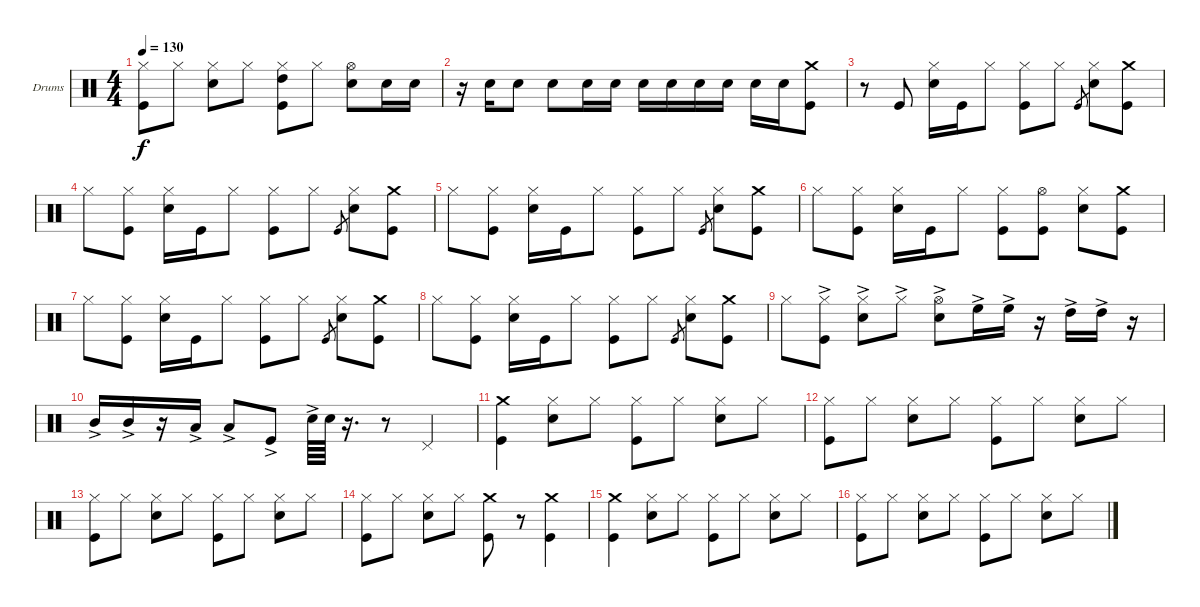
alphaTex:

\defaultSystemsLayout 4
\bracketExtendMode groupsimilarinstruments
\firstSystemTrackNameOrientation horizontal
\otherSystemsTrackNameOrientation horizontal
\track ("Stefan Kaufmann" "Drums") {instrument percussion}
\staff {score}
\articulation defaults
\ts (4 4)
\tempo 130
\clef neutral
\ks c
("Hi-Hat (closed)" "Kick (hit)").8{dy f} "Hi-Hat (closed)".8 ("Hi-Hat (closed)" "Snare (hit) 2").8 "Hi-Hat (closed)".8 ("Hi-Hat (closed)" "High Tom (hit)" "Kick (hit)").8 "Hi-Hat (closed)".8 ("Hi-Hat (open)" "Snare (hit) 2").8 "Snare (hit) 2".16 "Snare (hit) 2".16 |
r.16 "Snare (hit) 2".16 "Snare (hit) 2".8 "Snare (hit) 2".8 "Snare (hit) 2".16 "Snare (hit) 2".16 "Snare (hit) 2".16 "Snare (hit) 2".16 "Snare (hit) 2".16 "Snare (hit) 2".16 "Snare (hit) 2".16 "Snare (hit) 2".16 ("Crash medium (hit)" "Kick (hit)").8 |
r.8 "Kick (hit)".8 ("Hi-Hat (closed)" "Snare (hit) 2").16 "Kick (hit)".16 "Hi-Hat (closed)".8 ("Hi-Hat (closed)" "Kick (hit)").8 "Hi-Hat (closed)".8 "Kick (hit)".8{gr} ("Hi-Hat (closed)" "Snare (hit) 2").8 ("Crash medium (hit)" "Kick (hit)").8 |
"Hi-Hat (closed)".8 ("Hi-Hat (closed)" "Kick (hit)").8 ("Hi-Hat (closed)" "Snare (hit) 2").16 "Kick (hit)".16 "Hi-Hat (closed)".8 ("Hi-Hat (closed)" "Kick (hit)").8 "Hi-Hat (closed)".8 "Kick (hit)".8{gr} ("Hi-Hat (closed)" "Snare (hit) 2").8 ("Crash medium (hit)" "Kick (hit)").8 |
"Hi-Hat (closed)".8 ("Hi-Hat (closed)" "Kick (hit)").8 ("Hi-Hat (closed)" "Snare (hit) 2").16 "Kick (hit)".16 "Hi-Hat (closed)".8 ("Hi-Hat (closed)" "Kick (hit)").8 "Hi-Hat (closed)".8 "Kick (hit)".8{gr} ("Hi-Hat (closed)" "Snare (hit) 2").8 ("Crash medium (hit)" "Kick (hit)").8 |
"Hi-Hat (closed)".8 ("Hi-Hat (closed)" "Kick (hit)").8 ("Hi-Hat (closed)" "Snare (hit) 2").16 "Kick (hit)".16 "Hi-Hat (closed)".8 ("Hi-Hat (closed)" "Kick (hit)").8 ("Hi-Hat (open)" "Kick (hit)").8 ("Hi-Hat (closed)" "Snare (hit) 2").8 ("Crash medium (hit)" "Kick (hit)").8 |
"Hi-Hat (closed)".8 ("Hi-Hat (closed)" "Kick (hit)").8 ("Hi-Hat (closed)" "Snare (hit) 2").16 "Kick (hit)".16 "Hi-Hat (closed)".8 ("Hi-Hat (closed)" "Kick (hit)").8 "Hi-Hat (closed)".8 "Kick (hit)".8{gr} ("Hi-Hat (closed)" "Snare (hit) 2").8 ("Crash medium (hit)" "Kick (hit)").8 |
"Hi-Hat (closed)".8 ("Hi-Hat (closed)" "Kick (hit)").8 ("Hi-Hat (closed)" "Snare (hit) 2").16 "Kick (hit)".16 "Hi-Hat (closed)".8 ("Hi-Hat (closed)" "Kick (hit)").8 "Hi-Hat (closed)".8 "Kick (hit)".8{gr} ("Hi-Hat (closed)" "Snare (hit) 2").8 ("Crash medium (hit)" "Kick (hit)").8 |
"Hi-Hat (closed)".8 ("Hi-Hat (closed)"{ac} "Kick (hit)"{ac}).8 ("Hi-Hat (closed)"{ac} "Snare (hit) 2"{ac}).8 "Hi-Hat (closed)"{ac}.8 ("Hi-Hat (open)"{ac} "Snare (hit) 2"{ac}).8 "High Floor Tom (hit)"{ac}.16 "High Floor Tom (hit)"{ac}.16 r.16 "High Tom (hit)"{ac}.16 "High Tom (hit)"{ac}.16 r.16 |
"Mid Tom (hit)"{ac}.16 "Mid Tom (hit)"{ac}.16 r.16 "Low Tom (hit)"{ac}.16 "Low Tom (hit)"{ac}.8 "Kick (hit)"{ac}.8 "Snare (hit) 2"{ac}.64 "Snare (hit) 2".64 r.16{d} r.8 "Pedal Hi-Hat (hit)".4 |
("Crash medium (hit)" "Kick (hit)").4 ("Hi-Hat (closed)" "Snare (hit) 2").8 "Hi-Hat (closed)".8 ("Hi-Hat (closed)" "Kick (hit)").8 "Hi-Hat (closed)".8 ("Hi-Hat (closed)" "Snare (hit) 2").8 "Hi-Hat (closed)".8 |
("Hi-Hat (closed)" "Kick (hit)").8 "Hi-Hat (closed)".8 ("Hi-Hat (closed)" "Snare (hit) 2").8 "Hi-Hat (closed)".8 ("Hi-Hat (closed)" "Kick (hit)").8 "Hi-Hat (closed)".8 ("Hi-Hat (closed)" "Snare (hit) 2").8 "Hi-Hat (closed)".8 |
("Hi-Hat (closed)" "Kick (hit)").8 "Hi-Hat (closed)".8 ("Hi-Hat (closed)" "Snare (hit) 2").8 "Hi-Hat (closed)".8 ("Hi-Hat (closed)" "Kick (hit)").8 "Hi-Hat (closed)".8 ("Hi-Hat (closed)" "Snare (hit) 2").8 "Hi-Hat (closed)".8 |
("Hi-Hat (closed)" "Kick (hit)").8 "Hi-Hat (closed)".8 ("Hi-Hat (closed)" "Snare (hit) 2").8 "Hi-Hat (closed)".8 ("Crash medium (hit)" "Kick (hit)").8 r.8 ("Crash medium (hit)" "Kick (hit)").4 |
("Crash medium (hit)" "Kick (hit)").4 ("Hi-Hat (closed)" "Snare (hit) 2").8 "Hi-Hat (closed)".8 ("Hi-Hat (closed)" "Kick (hit)").8 "Hi-Hat (closed)".8 ("Hi-Hat (closed)" "Snare (hit) 2").8 "Hi-Hat (closed)".8 |
("Hi-Hat (closed)" "Kick (hit)").8 "Hi-Hat (closed)".8 ("Hi-Hat (closed)" "Snare (hit) 2").8 "Hi-Hat (closed)".8 ("Hi-Hat (closed)" "Kick (hit)").8 "Hi-Hat (closed)".8 ("Hi-Hat (closed)" "Snare (hit) 2").8 "Hi-Hat (closed)".8
